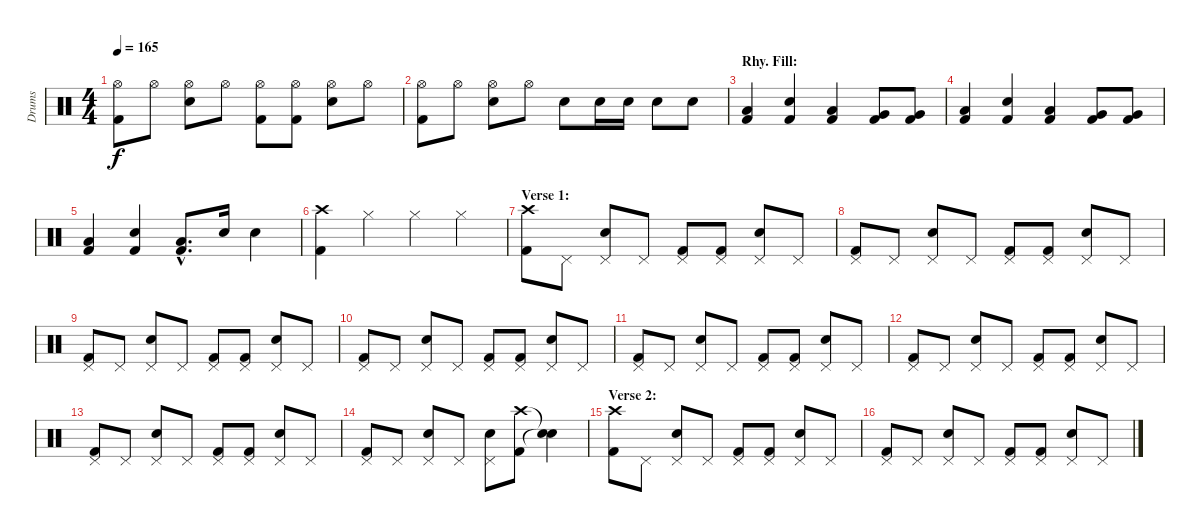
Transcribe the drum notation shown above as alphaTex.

\track ("Drums" "Drums") {instrument percussion}
\staff {score}
\articulation defaults
\ts (4 4)
\tempo 165
\clef neutral
\ks c
("Hi-Hat (open)" "Kick (hit) 2").8{dy f} "Hi-Hat (open)".8 ("Hi-Hat (open)" "Electric Snare (hit)").8 "Hi-Hat (open)".8 ("Hi-Hat (open)" "Kick (hit) 2").8 ("Hi-Hat (open)" "Kick (hit) 2").8 ("Hi-Hat (open)" "Electric Snare (hit)").8 "Hi-Hat (open)".8 |
("Hi-Hat (open)" "Kick (hit) 2").8 "Hi-Hat (open)".8 ("Hi-Hat (open)" "Electric Snare (hit)").8 "Hi-Hat (open)".8 "Electric Snare (hit)".8 "Electric Snare (hit)".16 "Electric Snare (hit)".16 "Electric Snare (hit)".8 "Electric Snare (hit)".8 |
\section ("" "Rhy. Fill:")
("Low Tom (hit)" "Kick (hit) 2").4 ("Electric Snare (hit)" "Kick (hit) 2").4 ("Low Tom (hit)" "Kick (hit) 2").4 ("Very Low Tom (hit)" "Kick (hit) 2").8 ("Very Low Tom (hit)" "Kick (hit) 2").8 |
("Low Tom (hit)" "Kick (hit) 2").4 ("Electric Snare (hit)" "Kick (hit) 2").4 ("Low Tom (hit)" "Kick (hit) 2").4 ("Very Low Tom (hit)" "Kick (hit) 2").8 ("Very Low Tom (hit)" "Kick (hit) 2").8 |
("Low Tom (hit)" "Kick (hit) 2").4 ("Electric Snare (hit)" "Kick (hit) 2").4 ("Low Tom (hit)"{hac} "Kick (hit) 2"{hac}).8{d} "Electric Snare (hit)".16 "Electric Snare (hit)".4 |
("Crash high (hit)" "Kick (hit) 2").4 "Hi-Hat (closed)".4 "Hi-Hat (closed)".4 "Hi-Hat (closed)".4 |
\section ("" "Verse 1:")
("Crash high (hit)" "Kick (hit) 2").8 "Pedal Hi-Hat (hit)".8 ("Pedal Hi-Hat (hit)" "Electric Snare (hit)").8 "Pedal Hi-Hat (hit)".8 ("Pedal Hi-Hat (hit)" "Kick (hit) 2").8 ("Pedal Hi-Hat (hit)" "Kick (hit) 2").8 ("Pedal Hi-Hat (hit)" "Electric Snare (hit)").8 "Pedal Hi-Hat (hit)".8 |
("Pedal Hi-Hat (hit)" "Kick (hit) 2").8 "Pedal Hi-Hat (hit)".8 ("Pedal Hi-Hat (hit)" "Electric Snare (hit)").8 "Pedal Hi-Hat (hit)".8 ("Pedal Hi-Hat (hit)" "Kick (hit) 2").8 ("Pedal Hi-Hat (hit)" "Kick (hit) 2").8 ("Pedal Hi-Hat (hit)" "Electric Snare (hit)").8 "Pedal Hi-Hat (hit)".8 |
("Pedal Hi-Hat (hit)" "Kick (hit) 2").8 "Pedal Hi-Hat (hit)".8 ("Pedal Hi-Hat (hit)" "Electric Snare (hit)").8 "Pedal Hi-Hat (hit)".8 ("Pedal Hi-Hat (hit)" "Kick (hit) 2").8 ("Pedal Hi-Hat (hit)" "Kick (hit) 2").8 ("Pedal Hi-Hat (hit)" "Electric Snare (hit)").8 "Pedal Hi-Hat (hit)".8 |
("Pedal Hi-Hat (hit)" "Kick (hit) 2").8 "Pedal Hi-Hat (hit)".8 ("Pedal Hi-Hat (hit)" "Electric Snare (hit)").8 "Pedal Hi-Hat (hit)".8 ("Pedal Hi-Hat (hit)" "Kick (hit) 2").8 ("Pedal Hi-Hat (hit)" "Kick (hit) 2").8 ("Pedal Hi-Hat (hit)" "Electric Snare (hit)").8 "Pedal Hi-Hat (hit)".8 |
("Pedal Hi-Hat (hit)" "Kick (hit) 2").8 "Pedal Hi-Hat (hit)".8 ("Pedal Hi-Hat (hit)" "Electric Snare (hit)").8 "Pedal Hi-Hat (hit)".8 ("Pedal Hi-Hat (hit)" "Kick (hit) 2").8 ("Pedal Hi-Hat (hit)" "Kick (hit) 2").8 ("Pedal Hi-Hat (hit)" "Electric Snare (hit)").8 "Pedal Hi-Hat (hit)".8 |
("Pedal Hi-Hat (hit)" "Kick (hit) 2").8 "Pedal Hi-Hat (hit)".8 ("Pedal Hi-Hat (hit)" "Electric Snare (hit)").8 "Pedal Hi-Hat (hit)".8 ("Pedal Hi-Hat (hit)" "Kick (hit) 2").8 ("Pedal Hi-Hat (hit)" "Kick (hit) 2").8 ("Pedal Hi-Hat (hit)" "Electric Snare (hit)").8 "Pedal Hi-Hat (hit)".8 |
("Pedal Hi-Hat (hit)" "Kick (hit) 2").8 "Pedal Hi-Hat (hit)".8 ("Pedal Hi-Hat (hit)" "Electric Snare (hit)").8 "Pedal Hi-Hat (hit)".8 ("Pedal Hi-Hat (hit)" "Kick (hit) 2").8 ("Pedal Hi-Hat (hit)" "Kick (hit) 2").8 ("Pedal Hi-Hat (hit)" "Electric Snare (hit)").8 "Pedal Hi-Hat (hit)".8 |
("Pedal Hi-Hat (hit)" "Kick (hit) 2").8 "Pedal Hi-Hat (hit)".8 ("Pedal Hi-Hat (hit)" "Electric Snare (hit)").8 "Pedal Hi-Hat (hit)".8 ("Pedal Hi-Hat (hit)" "Electric Snare (hit)").8 ("Crash high (hit)" "Kick (hit) 2").8 ("Snare (hit)"{t} "Snare (hit)"{t}).4 |
\section ("" "Verse 2:")
("Crash high (hit)" "Kick (hit) 2").8 "Pedal Hi-Hat (hit)".8 ("Pedal Hi-Hat (hit)" "Electric Snare (hit)").8 "Pedal Hi-Hat (hit)".8 ("Pedal Hi-Hat (hit)" "Kick (hit) 2").8 ("Pedal Hi-Hat (hit)" "Kick (hit) 2").8 ("Pedal Hi-Hat (hit)" "Electric Snare (hit)").8 "Pedal Hi-Hat (hit)".8 |
("Pedal Hi-Hat (hit)" "Kick (hit) 2").8 "Pedal Hi-Hat (hit)".8 ("Pedal Hi-Hat (hit)" "Electric Snare (hit)").8 "Pedal Hi-Hat (hit)".8 ("Pedal Hi-Hat (hit)" "Kick (hit) 2").8 ("Pedal Hi-Hat (hit)" "Kick (hit) 2").8 ("Pedal Hi-Hat (hit)" "Electric Snare (hit)").8 "Pedal Hi-Hat (hit)".8
